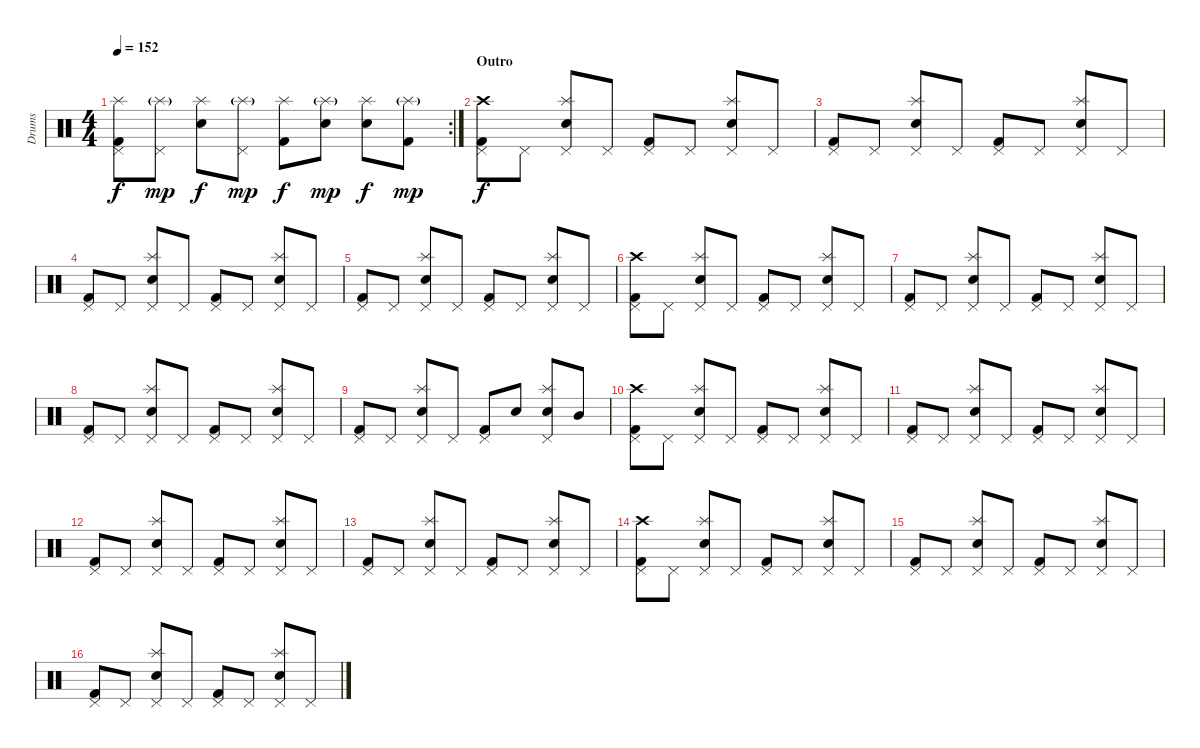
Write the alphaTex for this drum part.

\track ("Drums" "Drums") {instrument percussion}
\staff {score}
\articulation defaults
\rc 2
\ts (4 4)
\tempo 152
\clef neutral
\ks c
("Kick (hit) 2" "Pedal Hi-Hat (hit)" "Splash (hit)").8{dy f} ("Pedal Hi-Hat (hit)" "Splash (hit)"{g}).8{dy mp} ("Snare (hit) 2" "Splash (hit)").8{dy f} ("Pedal Hi-Hat (hit)" "Splash (hit)"{g}).8{dy mp} ("Kick (hit) 2" "Splash (hit)").8{dy f} ("Snare (hit) 2" "Splash (hit)"{g}).8{dy mp} ("Snare (hit) 2" "Splash (hit)").8{dy f} ("Kick (hit) 2" "Splash (hit)"{g}).8{dy mp} |
\section ("" "Outro")
("Kick (hit) 2" "Pedal Hi-Hat (hit)" "Crash high (hit)").8{dy f} "Pedal Hi-Hat (hit)".8 ("Snare (hit) 2" "Pedal Hi-Hat (hit)" "Splash (hit)").8 "Pedal Hi-Hat (hit)".8 ("Kick (hit) 2" "Pedal Hi-Hat (hit)").8 "Pedal Hi-Hat (hit)".8 ("Snare (hit) 2" "Pedal Hi-Hat (hit)" "Splash (hit)").8 "Pedal Hi-Hat (hit)".8 |
("Kick (hit) 2" "Pedal Hi-Hat (hit)").8 "Pedal Hi-Hat (hit)".8 ("Snare (hit) 2" "Pedal Hi-Hat (hit)" "Splash (hit)").8 "Pedal Hi-Hat (hit)".8 ("Kick (hit) 2" "Pedal Hi-Hat (hit)").8 "Pedal Hi-Hat (hit)".8 ("Snare (hit) 2" "Pedal Hi-Hat (hit)" "Splash (hit)").8 "Pedal Hi-Hat (hit)".8 |
("Kick (hit) 2" "Pedal Hi-Hat (hit)").8 "Pedal Hi-Hat (hit)".8 ("Snare (hit) 2" "Pedal Hi-Hat (hit)" "Splash (hit)").8 "Pedal Hi-Hat (hit)".8 ("Kick (hit) 2" "Pedal Hi-Hat (hit)").8 "Pedal Hi-Hat (hit)".8 ("Snare (hit) 2" "Pedal Hi-Hat (hit)" "Splash (hit)").8 "Pedal Hi-Hat (hit)".8 |
("Kick (hit) 2" "Pedal Hi-Hat (hit)").8 "Pedal Hi-Hat (hit)".8 ("Snare (hit) 2" "Pedal Hi-Hat (hit)" "Splash (hit)").8 "Pedal Hi-Hat (hit)".8 ("Kick (hit) 2" "Pedal Hi-Hat (hit)").8 "Pedal Hi-Hat (hit)".8 ("Snare (hit) 2" "Pedal Hi-Hat (hit)" "Splash (hit)").8 "Pedal Hi-Hat (hit)".8 |
("Kick (hit) 2" "Pedal Hi-Hat (hit)" "Crash high (hit)").8 "Pedal Hi-Hat (hit)".8 ("Snare (hit) 2" "Pedal Hi-Hat (hit)" "Splash (hit)").8 "Pedal Hi-Hat (hit)".8 ("Kick (hit) 2" "Pedal Hi-Hat (hit)").8 "Pedal Hi-Hat (hit)".8 ("Snare (hit) 2" "Pedal Hi-Hat (hit)" "Splash (hit)").8 "Pedal Hi-Hat (hit)".8 |
("Kick (hit) 2" "Pedal Hi-Hat (hit)").8 "Pedal Hi-Hat (hit)".8 ("Snare (hit) 2" "Pedal Hi-Hat (hit)" "Splash (hit)").8 "Pedal Hi-Hat (hit)".8 ("Kick (hit) 2" "Pedal Hi-Hat (hit)").8 "Pedal Hi-Hat (hit)".8 ("Snare (hit) 2" "Pedal Hi-Hat (hit)" "Splash (hit)").8 "Pedal Hi-Hat (hit)".8 |
("Kick (hit) 2" "Pedal Hi-Hat (hit)").8 "Pedal Hi-Hat (hit)".8 ("Snare (hit) 2" "Pedal Hi-Hat (hit)" "Splash (hit)").8 "Pedal Hi-Hat (hit)".8 ("Kick (hit) 2" "Pedal Hi-Hat (hit)").8 "Pedal Hi-Hat (hit)".8 ("Snare (hit) 2" "Pedal Hi-Hat (hit)" "Splash (hit)").8 "Pedal Hi-Hat (hit)".8 |
("Kick (hit) 2" "Pedal Hi-Hat (hit)").8 "Pedal Hi-Hat (hit)".8 ("Snare (hit) 2" "Pedal Hi-Hat (hit)" "Splash (hit)").8 "Pedal Hi-Hat (hit)".8 ("Kick (hit) 2" "Pedal Hi-Hat (hit)").8 "Snare (hit) 2".8 ("Snare (hit) 2" "Pedal Hi-Hat (hit)" "Splash (hit)").8 "Mid Tom (hit)".8 |
("Kick (hit) 2" "Pedal Hi-Hat (hit)" "Crash high (hit)").8 "Pedal Hi-Hat (hit)".8 ("Snare (hit) 2" "Pedal Hi-Hat (hit)" "Splash (hit)").8 "Pedal Hi-Hat (hit)".8 ("Kick (hit) 2" "Pedal Hi-Hat (hit)").8 "Pedal Hi-Hat (hit)".8 ("Snare (hit) 2" "Pedal Hi-Hat (hit)" "Splash (hit)").8 "Pedal Hi-Hat (hit)".8 |
("Kick (hit) 2" "Pedal Hi-Hat (hit)").8 "Pedal Hi-Hat (hit)".8 ("Snare (hit) 2" "Pedal Hi-Hat (hit)" "Splash (hit)").8 "Pedal Hi-Hat (hit)".8 ("Kick (hit) 2" "Pedal Hi-Hat (hit)").8 "Pedal Hi-Hat (hit)".8 ("Snare (hit) 2" "Pedal Hi-Hat (hit)" "Splash (hit)").8 "Pedal Hi-Hat (hit)".8 |
("Kick (hit) 2" "Pedal Hi-Hat (hit)").8 "Pedal Hi-Hat (hit)".8 ("Snare (hit) 2" "Pedal Hi-Hat (hit)" "Splash (hit)").8 "Pedal Hi-Hat (hit)".8 ("Kick (hit) 2" "Pedal Hi-Hat (hit)").8 "Pedal Hi-Hat (hit)".8 ("Snare (hit) 2" "Pedal Hi-Hat (hit)" "Splash (hit)").8 "Pedal Hi-Hat (hit)".8 |
("Kick (hit) 2" "Pedal Hi-Hat (hit)").8 "Pedal Hi-Hat (hit)".8 ("Snare (hit) 2" "Pedal Hi-Hat (hit)" "Splash (hit)").8 "Pedal Hi-Hat (hit)".8 ("Kick (hit) 2" "Pedal Hi-Hat (hit)").8 "Pedal Hi-Hat (hit)".8 ("Snare (hit) 2" "Pedal Hi-Hat (hit)" "Splash (hit)").8 "Pedal Hi-Hat (hit)".8 |
("Kick (hit) 2" "Pedal Hi-Hat (hit)" "Crash high (hit)").8 "Pedal Hi-Hat (hit)".8 ("Snare (hit) 2" "Pedal Hi-Hat (hit)" "Splash (hit)").8 "Pedal Hi-Hat (hit)".8 ("Kick (hit) 2" "Pedal Hi-Hat (hit)").8 "Pedal Hi-Hat (hit)".8 ("Snare (hit) 2" "Pedal Hi-Hat (hit)" "Splash (hit)").8 "Pedal Hi-Hat (hit)".8 |
("Kick (hit) 2" "Pedal Hi-Hat (hit)").8 "Pedal Hi-Hat (hit)".8 ("Snare (hit) 2" "Pedal Hi-Hat (hit)" "Splash (hit)").8 "Pedal Hi-Hat (hit)".8 ("Kick (hit) 2" "Pedal Hi-Hat (hit)").8 "Pedal Hi-Hat (hit)".8 ("Snare (hit) 2" "Pedal Hi-Hat (hit)" "Splash (hit)").8 "Pedal Hi-Hat (hit)".8 |
("Kick (hit) 2" "Pedal Hi-Hat (hit)").8 "Pedal Hi-Hat (hit)".8 ("Snare (hit) 2" "Pedal Hi-Hat (hit)" "Splash (hit)").8 "Pedal Hi-Hat (hit)".8 ("Kick (hit) 2" "Pedal Hi-Hat (hit)").8 "Pedal Hi-Hat (hit)".8 ("Snare (hit) 2" "Pedal Hi-Hat (hit)" "Splash (hit)").8 "Pedal Hi-Hat (hit)".8
